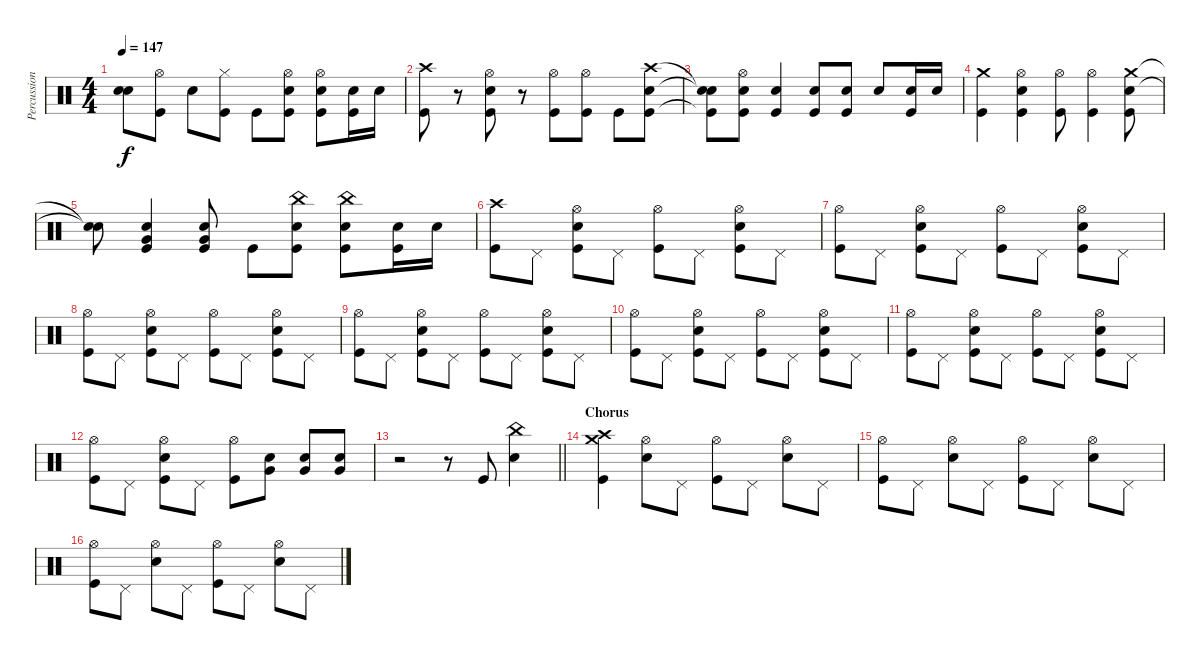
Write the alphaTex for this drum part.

\track ("Percussion" "Percussion") {instrument percussion}
\staff {score}
\articulation defaults
\ts (4 4)
\tempo 147
\clef neutral
\ks c
("Snare (hit)"{t} "Snare (hit)"{t}).8{dy f} ("Hi-Hat (open)" "Kick (hit)").8 "Electric Snare (hit)".8 ("Hi-Hat (closed)" "Kick (hit)").8 "Kick (hit)".8 ("Hi-Hat (open)" "Electric Snare (hit)" "Kick (hit)").8 ("Hi-Hat (open)" "Electric Snare (hit)" "Kick (hit)").8 ("Electric Snare (hit)" "Kick (hit)").16 "Electric Snare (hit)".16 |
("Crash high (hit)" "Kick (hit)").8 r.8 ("Hi-Hat (open)" "Electric Snare (hit)" "Kick (hit)").8 r.8 ("Hi-Hat (open)" "Kick (hit)").8 ("Hi-Hat (open)" "Kick (hit)").8 "Kick (hit)".8 ("Crash high (hit)" "Electric Snare (hit)" "Kick (hit)").8 |
("Snare (hit)"{t} "Snare (hit)"{t} "Kick (hit)"{t}).8 ("Hi-Hat (open)" "Electric Snare (hit)" "Kick (hit)").8 ("Electric Snare (hit)" "Kick (hit)").4 ("Electric Snare (hit)" "Kick (hit)").8 ("Electric Snare (hit)" "Kick (hit)").8 "Electric Snare (hit)".8 ("Electric Snare (hit)" "Kick (hit)").16 "Electric Snare (hit)".16 |
("Crash medium (hit)" "Kick (hit)").4 ("Hi-Hat (open)" "Electric Snare (hit)" "Kick (hit)").4 ("Hi-Hat (open)" "Kick (hit)").8 ("Hi-Hat (open)" "Kick (hit)").4 ("Crash medium (hit)" "Electric Snare (hit)" "Kick (hit)").8 |
("Snare (hit)"{t} "Snare (hit)"{t}).8 ("Electric Snare (hit)" "Very Low Tom (hit)" "Kick (hit)").4 ("Electric Snare (hit)" "Very Low Tom (hit)" "Kick (hit)").8 "Kick (hit)".8 ("China (hit)" "Electric Snare (hit)" "Kick (hit)").8 ("China (hit)" "Electric Snare (hit)" "Kick (hit)").8 ("Electric Snare (hit)" "Kick (hit)").16 "Electric Snare (hit)".16 |
("Crash high (hit)" "Kick (hit)").8 "Pedal Hi-Hat (hit)".8 ("Hi-Hat (open)" "Electric Snare (hit)" "Kick (hit)").8 "Pedal Hi-Hat (hit)".8 ("Hi-Hat (open)" "Kick (hit)").8 "Pedal Hi-Hat (hit)".8 ("Hi-Hat (open)" "Electric Snare (hit)" "Kick (hit)").8 "Pedal Hi-Hat (hit)".8 |
("Hi-Hat (open)" "Kick (hit)").8 "Pedal Hi-Hat (hit)".8 ("Hi-Hat (open)" "Electric Snare (hit)" "Kick (hit)").8 "Pedal Hi-Hat (hit)".8 ("Hi-Hat (open)" "Kick (hit)").8 "Pedal Hi-Hat (hit)".8 ("Hi-Hat (open)" "Electric Snare (hit)" "Kick (hit)").8 "Pedal Hi-Hat (hit)".8 |
("Hi-Hat (open)" "Kick (hit)").8 "Pedal Hi-Hat (hit)".8 ("Hi-Hat (open)" "Electric Snare (hit)" "Kick (hit)").8 "Pedal Hi-Hat (hit)".8 ("Hi-Hat (open)" "Kick (hit)").8 "Pedal Hi-Hat (hit)".8 ("Hi-Hat (open)" "Electric Snare (hit)" "Kick (hit)").8 "Pedal Hi-Hat (hit)".8 |
("Hi-Hat (open)" "Kick (hit)").8 "Pedal Hi-Hat (hit)".8 ("Hi-Hat (open)" "Electric Snare (hit)" "Kick (hit)").8 "Pedal Hi-Hat (hit)".8 ("Hi-Hat (open)" "Kick (hit)").8 "Pedal Hi-Hat (hit)".8 ("Hi-Hat (open)" "Electric Snare (hit)" "Kick (hit)").8 "Pedal Hi-Hat (hit)".8 |
("Hi-Hat (open)" "Kick (hit)").8 "Pedal Hi-Hat (hit)".8 ("Hi-Hat (open)" "Electric Snare (hit)" "Kick (hit)").8 "Pedal Hi-Hat (hit)".8 ("Hi-Hat (open)" "Kick (hit)").8 "Pedal Hi-Hat (hit)".8 ("Hi-Hat (open)" "Electric Snare (hit)" "Kick (hit)").8 "Pedal Hi-Hat (hit)".8 |
("Hi-Hat (open)" "Kick (hit)").8 "Pedal Hi-Hat (hit)".8 ("Hi-Hat (open)" "Electric Snare (hit)" "Kick (hit)").8 "Pedal Hi-Hat (hit)".8 ("Hi-Hat (open)" "Kick (hit)").8 "Pedal Hi-Hat (hit)".8 ("Hi-Hat (open)" "Electric Snare (hit)" "Kick (hit)").8 "Pedal Hi-Hat (hit)".8 |
("Hi-Hat (open)" "Kick (hit)").8 "Pedal Hi-Hat (hit)".8 ("Hi-Hat (open)" "Electric Snare (hit)" "Kick (hit)").8 "Pedal Hi-Hat (hit)".8 ("Hi-Hat (open)" "Kick (hit)").8 ("Electric Snare (hit)" "Very Low Tom (hit)").8 ("Electric Snare (hit)" "Very Low Tom (hit)").8 ("Electric Snare (hit)" "Very Low Tom (hit)").8 |
\barLineRight lightlight
r.2 r.8 "Kick (hit)".8 ("China (hit)" "Electric Snare (hit)").4 |
\section ("" "Chorus")
("Crash high (hit)" "Crash medium (hit)" "Kick (hit)").4 ("Hi-Hat (open)" "Electric Snare (hit)").8 "Pedal Hi-Hat (hit)".8 ("Hi-Hat (open)" "Kick (hit)").8 "Pedal Hi-Hat (hit)".8 ("Hi-Hat (open)" "Electric Snare (hit)").8 "Pedal Hi-Hat (hit)".8 |
("Hi-Hat (open)" "Kick (hit)").8 "Pedal Hi-Hat (hit)".8 ("Hi-Hat (open)" "Electric Snare (hit)").8 "Pedal Hi-Hat (hit)".8 ("Hi-Hat (open)" "Kick (hit)").8 "Pedal Hi-Hat (hit)".8 ("Hi-Hat (open)" "Electric Snare (hit)").8 "Pedal Hi-Hat (hit)".8 |
("Hi-Hat (open)" "Kick (hit)").8 "Pedal Hi-Hat (hit)".8 ("Hi-Hat (open)" "Electric Snare (hit)").8 "Pedal Hi-Hat (hit)".8 ("Hi-Hat (open)" "Kick (hit)").8 "Pedal Hi-Hat (hit)".8 ("Hi-Hat (open)" "Electric Snare (hit)").8 "Pedal Hi-Hat (hit)".8
